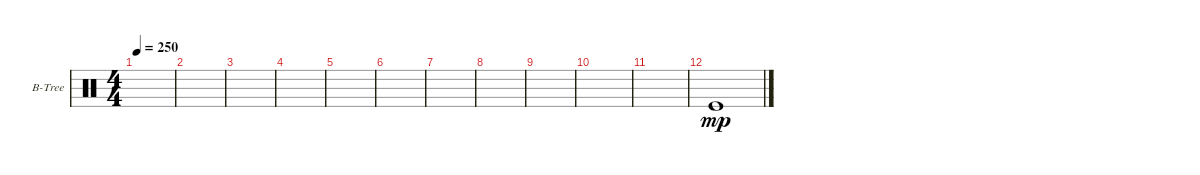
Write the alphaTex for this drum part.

\defaultSystemsLayout 4
\bracketExtendMode groupsimilarinstruments
\firstSystemTrackNameOrientation horizontal
\otherSystemsTrackNameOrientation horizontal
\track ("Bell Tree" "B-Tree") {mute instrument percussion}
\staff {score}
\articulation defaults
\ts (4 4)
\tempo 250
\clef neutral
\scale
0.333333
\ks c
|
\scale
0.333333 |
\scale
0.333333 |
\scale
0.333333 |
\scale
0.333333 |
\scale
0.333333 |
\scale
0.333333 |
\scale
0.333333 |
\scale
0.333333 |
\scale
0.333333 |
\scale
0.333333 |
\scale
0.333333 "Kick (hit)".1{dy mp} |
\scale
0.333333 |
\scale
0.333333 |
\scale
0.333333 |
\scale
0.333333
